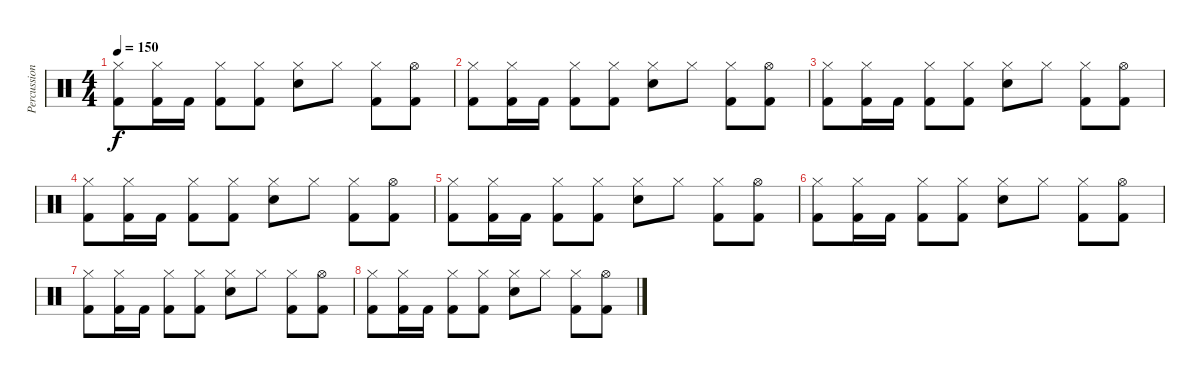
\track ("Percussions" "Percussion") {instrument percussion}
\staff {score}
\articulation defaults
\ts (4 4)
\tempo 150
\clef neutral
\ks c
("Hi-Hat (closed)" "Kick (hit) 2").8{dy f volume 6} ("Hi-Hat (closed)" "Kick (hit) 2").16 "Kick (hit) 2".16 ("Hi-Hat (closed)" "Kick (hit) 2").8 ("Hi-Hat (closed)" "Kick (hit) 2").8 ("Hi-Hat (closed)" "Snare (hit) 2").8 "Hi-Hat (closed)".8 ("Hi-Hat (closed)" "Kick (hit) 2").8 ("Hi-Hat (open)" "Kick (hit) 2").8 |
("Hi-Hat (closed)" "Kick (hit) 2").8 ("Hi-Hat (closed)" "Kick (hit) 2").16 "Kick (hit) 2".16 ("Hi-Hat (closed)" "Kick (hit) 2").8 ("Hi-Hat (closed)" "Kick (hit) 2").8 ("Hi-Hat (closed)" "Snare (hit) 2").8 "Hi-Hat (closed)".8 ("Hi-Hat (closed)" "Kick (hit) 2").8 ("Hi-Hat (open)" "Kick (hit) 2").8 |
("Hi-Hat (closed)" "Kick (hit) 2").8 ("Hi-Hat (closed)" "Kick (hit) 2").16 "Kick (hit) 2".16 ("Hi-Hat (closed)" "Kick (hit) 2").8 ("Hi-Hat (closed)" "Kick (hit) 2").8 ("Hi-Hat (closed)" "Snare (hit) 2").8 "Hi-Hat (closed)".8 ("Hi-Hat (closed)" "Kick (hit) 2").8 ("Hi-Hat (open)" "Kick (hit) 2").8 |
("Hi-Hat (closed)" "Kick (hit) 2").8 ("Hi-Hat (closed)" "Kick (hit) 2").16 "Kick (hit) 2".16 ("Hi-Hat (closed)" "Kick (hit) 2").8 ("Hi-Hat (closed)" "Kick (hit) 2").8 ("Hi-Hat (closed)" "Snare (hit) 2").8 "Hi-Hat (closed)".8 ("Hi-Hat (closed)" "Kick (hit) 2").8 ("Hi-Hat (open)" "Kick (hit) 2").8 |
("Hi-Hat (closed)" "Kick (hit) 2").8{volume 0} ("Hi-Hat (closed)" "Kick (hit) 2").16 "Kick (hit) 2".16 ("Hi-Hat (closed)" "Kick (hit) 2").8 ("Hi-Hat (closed)" "Kick (hit) 2").8 ("Hi-Hat (closed)" "Snare (hit) 2").8 "Hi-Hat (closed)".8 ("Hi-Hat (closed)" "Kick (hit) 2").8 ("Hi-Hat (open)" "Kick (hit) 2").8 |
("Hi-Hat (closed)" "Kick (hit) 2").8 ("Hi-Hat (closed)" "Kick (hit) 2").16 "Kick (hit) 2".16 ("Hi-Hat (closed)" "Kick (hit) 2").8 ("Hi-Hat (closed)" "Kick (hit) 2").8 ("Hi-Hat (closed)" "Snare (hit) 2").8 "Hi-Hat (closed)".8 ("Hi-Hat (closed)" "Kick (hit) 2").8 ("Hi-Hat (open)" "Kick (hit) 2").8 |
("Hi-Hat (closed)" "Kick (hit) 2").8 ("Hi-Hat (closed)" "Kick (hit) 2").16 "Kick (hit) 2".16 ("Hi-Hat (closed)" "Kick (hit) 2").8 ("Hi-Hat (closed)" "Kick (hit) 2").8 ("Hi-Hat (closed)" "Snare (hit) 2").8 "Hi-Hat (closed)".8 ("Hi-Hat (closed)" "Kick (hit) 2").8 ("Hi-Hat (open)" "Kick (hit) 2").8 |
("Hi-Hat (closed)" "Kick (hit) 2").8 ("Hi-Hat (closed)" "Kick (hit) 2").16 "Kick (hit) 2".16 ("Hi-Hat (closed)" "Kick (hit) 2").8 ("Hi-Hat (closed)" "Kick (hit) 2").8 ("Hi-Hat (closed)" "Snare (hit) 2").8 "Hi-Hat (closed)".8 ("Hi-Hat (closed)" "Kick (hit) 2").8 ("Hi-Hat (open)" "Kick (hit) 2").8
